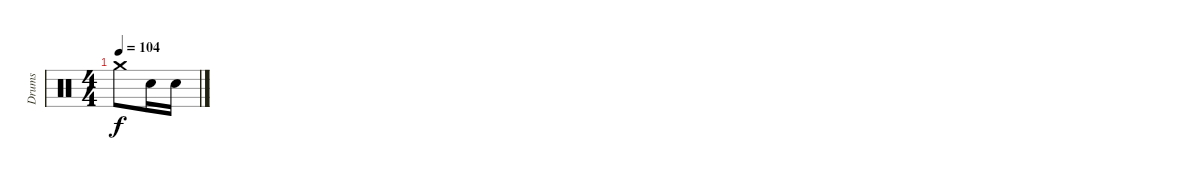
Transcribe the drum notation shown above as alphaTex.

\defaultSystemsLayout 4
\bracketExtendMode groupsimilarinstruments
\otherSystemsTrackNameOrientation horizontal
\track ("Drums" "Drums") {instrument percussion}
\staff {score}
\articulation defaults
\ts (4 4)
\tempo 104
\clef neutral
\ks c "Crash medium (hit)".8{dy f beam Down} "Snare (hit) 2".16{beam Down} "Snare (hit) 2".16{beam Down}
